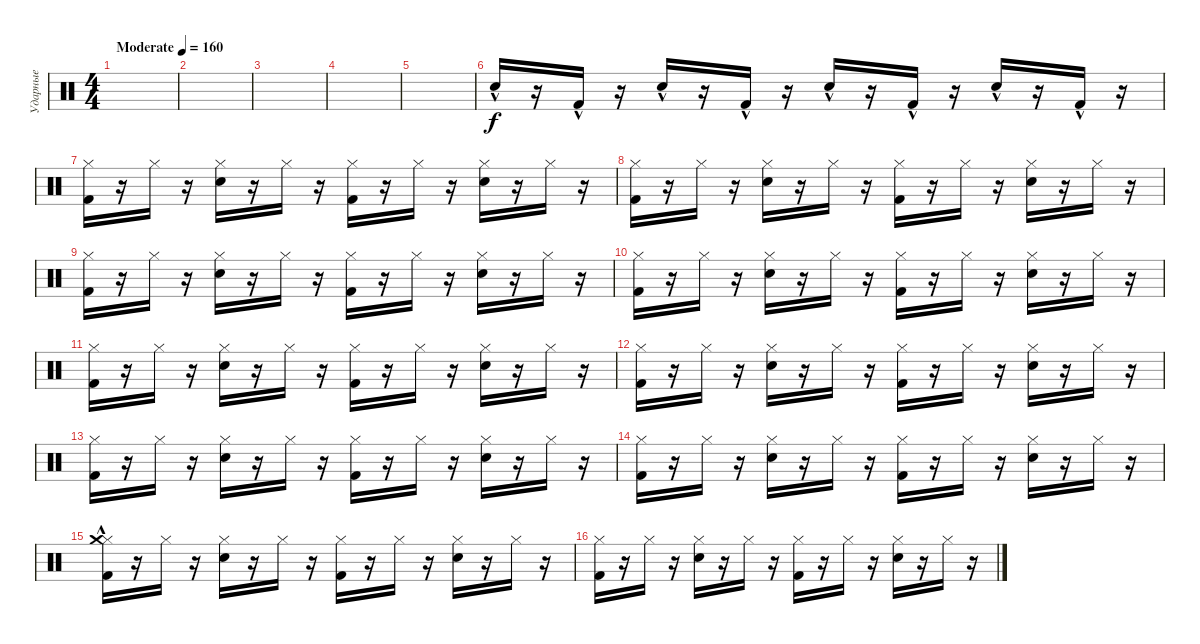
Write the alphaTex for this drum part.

\track ("Ударные" "Ударные") {instrument percussion}
\staff {score}
\articulation defaults
\ts (4 4)
\tempo (160 "Moderate")
\clef neutral
\ks c
|
|
|
|
|
"Electric Snare (hit)"{hac}.16 r.16 "Kick (hit) 2"{hac}.16 r.16 "Electric Snare (hit)"{hac}.16 r.16 "Kick (hit) 2"{hac}.16 r.16 "Electric Snare (hit)"{hac}.16 r.16 "Kick (hit) 2"{hac}.16 r.16 "Electric Snare (hit)"{hac}.16 r.16 "Kick (hit) 2"{hac}.16 r.16 |
("Hi-Hat (closed)" "Kick (hit) 2").16 r.16 "Hi-Hat (closed)".16 r.16 ("Hi-Hat (closed)" "Electric Snare (hit)").16 r.16 "Hi-Hat (closed)".16 r.16 ("Hi-Hat (closed)" "Kick (hit) 2").16 r.16 "Hi-Hat (closed)".16 r.16 ("Hi-Hat (closed)" "Electric Snare (hit)").16 r.16 "Hi-Hat (closed)".16 r.16 |
("Hi-Hat (closed)" "Kick (hit) 2").16 r.16 "Hi-Hat (closed)".16 r.16 ("Hi-Hat (closed)" "Electric Snare (hit)").16 r.16 "Hi-Hat (closed)".16 r.16 ("Hi-Hat (closed)" "Kick (hit) 2").16 r.16 "Hi-Hat (closed)".16 r.16 ("Hi-Hat (closed)" "Electric Snare (hit)").16 r.16 "Hi-Hat (closed)".16 r.16 |
("Hi-Hat (closed)" "Kick (hit) 2").16 r.16 "Hi-Hat (closed)".16 r.16 ("Hi-Hat (closed)" "Electric Snare (hit)").16 r.16 "Hi-Hat (closed)".16 r.16 ("Hi-Hat (closed)" "Kick (hit) 2").16 r.16 "Hi-Hat (closed)".16 r.16 ("Hi-Hat (closed)" "Electric Snare (hit)").16 r.16 "Hi-Hat (closed)".16 r.16 |
("Hi-Hat (closed)" "Kick (hit) 2").16 r.16 "Hi-Hat (closed)".16 r.16 ("Hi-Hat (closed)" "Electric Snare (hit)").16 r.16 "Hi-Hat (closed)".16 r.16 ("Hi-Hat (closed)" "Kick (hit) 2").16 r.16 "Hi-Hat (closed)".16 r.16 ("Hi-Hat (closed)" "Electric Snare (hit)").16 r.16 "Hi-Hat (closed)".16 r.16 |
("Hi-Hat (closed)" "Kick (hit) 2").16 r.16 "Hi-Hat (closed)".16 r.16 ("Hi-Hat (closed)" "Electric Snare (hit)").16 r.16 "Hi-Hat (closed)".16 r.16 ("Hi-Hat (closed)" "Kick (hit) 2").16 r.16 "Hi-Hat (closed)".16 r.16 ("Hi-Hat (closed)" "Electric Snare (hit)").16 r.16 "Hi-Hat (closed)".16 r.16 |
("Hi-Hat (closed)" "Kick (hit) 2").16 r.16 "Hi-Hat (closed)".16 r.16 ("Hi-Hat (closed)" "Electric Snare (hit)").16 r.16 "Hi-Hat (closed)".16 r.16 ("Hi-Hat (closed)" "Kick (hit) 2").16 r.16 "Hi-Hat (closed)".16 r.16 ("Hi-Hat (closed)" "Electric Snare (hit)").16 r.16 "Hi-Hat (closed)".16 r.16 |
("Hi-Hat (closed)" "Kick (hit) 2").16 r.16 "Hi-Hat (closed)".16 r.16 ("Hi-Hat (closed)" "Electric Snare (hit)").16 r.16 "Hi-Hat (closed)".16 r.16 ("Hi-Hat (closed)" "Kick (hit) 2").16 r.16 "Hi-Hat (closed)".16 r.16 ("Hi-Hat (closed)" "Electric Snare (hit)").16 r.16 "Hi-Hat (closed)".16 r.16 |
("Hi-Hat (closed)" "Kick (hit) 2").16 r.16 "Hi-Hat (closed)".16 r.16 ("Hi-Hat (closed)" "Electric Snare (hit)").16 r.16 "Hi-Hat (closed)".16 r.16 ("Hi-Hat (closed)" "Kick (hit) 2").16 r.16 "Hi-Hat (closed)".16 r.16 ("Hi-Hat (closed)" "Electric Snare (hit)").16 r.16 "Hi-Hat (closed)".16 r.16 |
("Hi-Hat (closed)" "Kick (hit) 2" "Crash medium (hit)"{hac}).16 r.16 "Hi-Hat (closed)".16 r.16 ("Hi-Hat (closed)" "Electric Snare (hit)").16 r.16 "Hi-Hat (closed)".16 r.16 ("Hi-Hat (closed)" "Kick (hit) 2").16 r.16 "Hi-Hat (closed)".16 r.16 ("Hi-Hat (closed)" "Electric Snare (hit)").16 r.16 "Hi-Hat (closed)".16 r.16 |
("Hi-Hat (closed)" "Kick (hit) 2").16 r.16 "Hi-Hat (closed)".16 r.16 ("Hi-Hat (closed)" "Electric Snare (hit)").16 r.16 "Hi-Hat (closed)".16 r.16 ("Hi-Hat (closed)" "Kick (hit) 2").16 r.16 "Hi-Hat (closed)".16 r.16 ("Hi-Hat (closed)" "Electric Snare (hit)").16 r.16 "Hi-Hat (closed)".16 r.16
